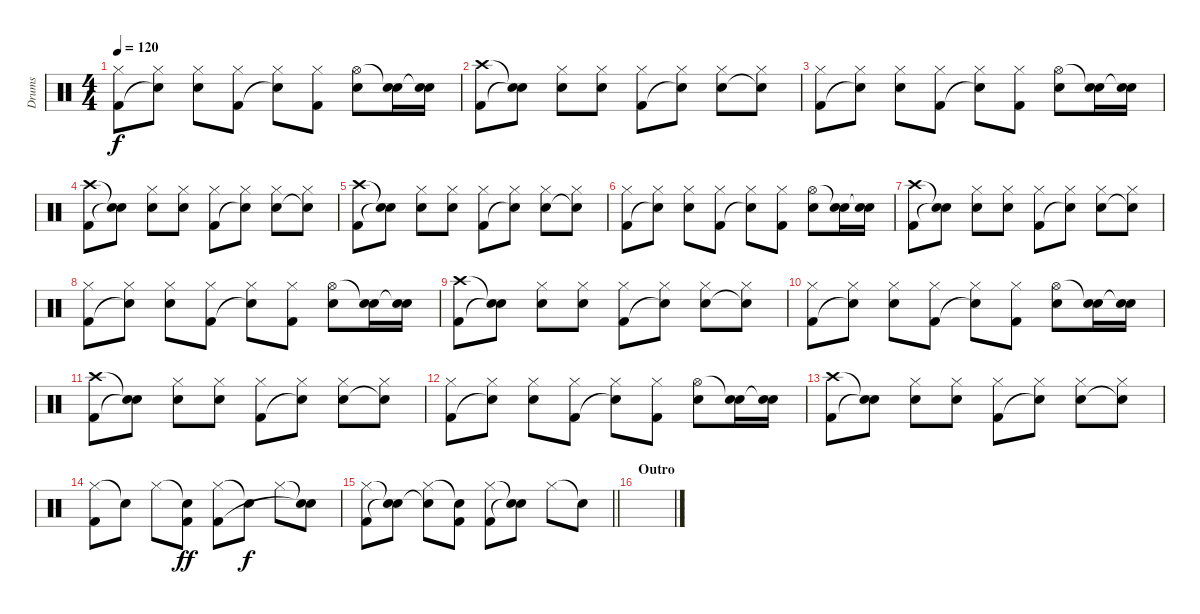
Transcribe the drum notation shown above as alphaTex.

\track ("Drums" "Drums") {instrument percussion}
\staff {score}
\articulation defaults
\ts (4 4)
\tempo 120
\clef neutral
\ks c
("Hi-Hat (closed)" "Kick (hit) 2").8{dy f} ("Hi-Hat (closed)" "Snare (hit)"{t}).8 ("Hi-Hat (closed)" "Snare (hit) 2").8 ("Hi-Hat (closed)" "Kick (hit) 2").8 ("Hi-Hat (closed)" "Snare (hit)"{t}).8 ("Hi-Hat (closed)" "Kick (hit) 2").8 ("Hi-Hat (open)" "Snare (hit) 2").8 ("Snare (hit)"{t} "Snare (hit) 2").16 ("Snare (hit)"{t} "Snare (hit) 2").16 |
("Crash high (hit)" "Kick (hit) 2").8 ("Snare (hit)"{t} "Snare (hit)"{t}).8 ("Hi-Hat (closed)" "Snare (hit) 2").8 ("Hi-Hat (closed)" "Snare (hit) 2").8 ("Hi-Hat (closed)" "Kick (hit) 2").8 ("Hi-Hat (closed)" "Snare (hit)"{t}).8 ("Hi-Hat (closed)" "Snare (hit) 2").8 ("Hi-Hat (closed)" "Snare (hit)"{t}).8 |
("Hi-Hat (closed)" "Kick (hit) 2").8 ("Hi-Hat (closed)" "Snare (hit)"{t}).8 ("Hi-Hat (closed)" "Snare (hit) 2").8 ("Hi-Hat (closed)" "Kick (hit) 2").8 ("Hi-Hat (closed)" "Snare (hit)"{t}).8 ("Hi-Hat (closed)" "Kick (hit) 2").8 ("Hi-Hat (open)" "Snare (hit) 2").8 ("Snare (hit)"{t} "Snare (hit) 2").16 ("Snare (hit)"{t} "Snare (hit) 2").16 |
("Crash high (hit)" "Kick (hit) 2").8 ("Snare (hit)"{t} "Snare (hit)"{t}).8 ("Hi-Hat (closed)" "Snare (hit) 2").8 ("Hi-Hat (closed)" "Snare (hit) 2").8 ("Hi-Hat (closed)" "Kick (hit) 2").8 ("Hi-Hat (closed)" "Snare (hit)"{t}).8 ("Hi-Hat (closed)" "Snare (hit) 2").8 ("Hi-Hat (closed)" "Snare (hit)"{t}).8 |
("Crash high (hit)" "Kick (hit) 2").8 ("Snare (hit)"{t} "Snare (hit)"{t}).8 ("Hi-Hat (closed)" "Snare (hit) 2").8 ("Hi-Hat (closed)" "Snare (hit) 2").8 ("Hi-Hat (closed)" "Kick (hit) 2").8 ("Hi-Hat (closed)" "Snare (hit)"{t}).8 ("Hi-Hat (closed)" "Snare (hit) 2").8 ("Hi-Hat (closed)" "Snare (hit)"{t}).8 |
("Hi-Hat (closed)" "Kick (hit) 2").8 ("Hi-Hat (closed)" "Snare (hit)"{t}).8 ("Hi-Hat (closed)" "Snare (hit) 2").8 ("Hi-Hat (closed)" "Kick (hit) 2").8 ("Hi-Hat (closed)" "Snare (hit)"{t}).8 ("Hi-Hat (closed)" "Kick (hit) 2").8 ("Hi-Hat (open)" "Snare (hit) 2").8 ("Snare (hit)"{t} "Snare (hit) 2").16 ("Snare (hit)"{t} "Snare (hit) 2").16 |
("Crash high (hit)" "Kick (hit) 2").8 ("Snare (hit)"{t} "Snare (hit)"{t}).8 ("Hi-Hat (closed)" "Snare (hit) 2").8 ("Hi-Hat (closed)" "Snare (hit) 2").8 ("Hi-Hat (closed)" "Kick (hit) 2").8 ("Hi-Hat (closed)" "Snare (hit)"{t}).8 ("Hi-Hat (closed)" "Snare (hit) 2").8 ("Hi-Hat (closed)" "Snare (hit)"{t}).8 |
("Hi-Hat (closed)" "Kick (hit) 2").8 ("Hi-Hat (closed)" "Snare (hit)"{t}).8 ("Hi-Hat (closed)" "Snare (hit) 2").8 ("Hi-Hat (closed)" "Kick (hit) 2").8 ("Hi-Hat (closed)" "Snare (hit)"{t}).8 ("Hi-Hat (closed)" "Kick (hit) 2").8 ("Hi-Hat (open)" "Snare (hit) 2").8 ("Snare (hit)"{t} "Snare (hit) 2").16 ("Snare (hit)"{t} "Snare (hit) 2").16 |
("Crash high (hit)" "Kick (hit) 2").8 ("Snare (hit)"{t} "Snare (hit)"{t}).8 ("Hi-Hat (closed)" "Snare (hit) 2").8 ("Hi-Hat (closed)" "Snare (hit) 2").8 ("Hi-Hat (closed)" "Kick (hit) 2").8 ("Hi-Hat (closed)" "Snare (hit)"{t}).8 ("Hi-Hat (closed)" "Snare (hit) 2").8 ("Hi-Hat (closed)" "Snare (hit)"{t}).8 |
("Hi-Hat (closed)" "Kick (hit) 2").8 ("Hi-Hat (closed)" "Snare (hit)"{t}).8 ("Hi-Hat (closed)" "Snare (hit) 2").8 ("Hi-Hat (closed)" "Kick (hit) 2").8 ("Hi-Hat (closed)" "Snare (hit)"{t}).8 ("Hi-Hat (closed)" "Kick (hit) 2").8 ("Hi-Hat (open)" "Snare (hit) 2").8 ("Snare (hit)"{t} "Snare (hit) 2").16 ("Snare (hit)"{t} "Snare (hit) 2").16 |
("Crash high (hit)" "Kick (hit) 2").8 ("Snare (hit)"{t} "Snare (hit)"{t}).8 ("Hi-Hat (closed)" "Snare (hit) 2").8 ("Hi-Hat (closed)" "Snare (hit) 2").8 ("Hi-Hat (closed)" "Kick (hit) 2").8 ("Hi-Hat (closed)" "Snare (hit)"{t}).8 ("Hi-Hat (closed)" "Snare (hit) 2").8 ("Hi-Hat (closed)" "Snare (hit)"{t}).8 |
("Hi-Hat (closed)" "Kick (hit) 2").8 ("Hi-Hat (closed)" "Snare (hit)"{t}).8 ("Hi-Hat (closed)" "Snare (hit) 2").8 ("Hi-Hat (closed)" "Kick (hit) 2").8 ("Hi-Hat (closed)" "Snare (hit)"{t}).8 ("Hi-Hat (closed)" "Kick (hit) 2").8 ("Hi-Hat (open)" "Snare (hit) 2").8 ("Snare (hit)"{t} "Snare (hit) 2").16 ("Snare (hit)"{t} "Snare (hit) 2").16 |
("Crash high (hit)" "Kick (hit) 2").8 ("Snare (hit)"{t} "Snare (hit)"{t}).8 ("Hi-Hat (closed)" "Snare (hit) 2").8 ("Hi-Hat (closed)" "Snare (hit) 2").8 ("Hi-Hat (closed)" "Kick (hit) 2").8 ("Hi-Hat (closed)" "Snare (hit)"{t}).8 ("Hi-Hat (closed)" "Snare (hit) 2").8 ("Hi-Hat (closed)" "Snare (hit)"{t}).8 |
("Hi-Hat (closed)" "Kick (hit) 2").8 "Snare (hit)"{t}.8 "Hi-Hat (closed)".8 ("Snare (hit)"{t} "Kick (hit) 2").8{dy ff} ("Hi-Hat (closed)" "Kick (hit) 2").8 "Snare (hit)"{t}.8{dy f} "Hi-Hat (closed)".8 ("Snare (hit)"{t} "Snare (hit)"{t}).8 |
\barLineRight lightlight
("Hi-Hat (closed)" "Kick (hit) 2").8 ("Snare (hit)"{t} "Snare (hit)"{t}).8 ("Hi-Hat (closed)" "Snare (hit)"{t}).8 ("Snare (hit)"{t} "Kick (hit) 2").8 ("Hi-Hat (closed)" "Kick (hit) 2").8 ("Snare (hit)"{t} "Snare (hit)"{t}).8 "Hi-Hat (closed)".8 "Snare (hit)"{t}.8 |
\section ("" "Outro")
